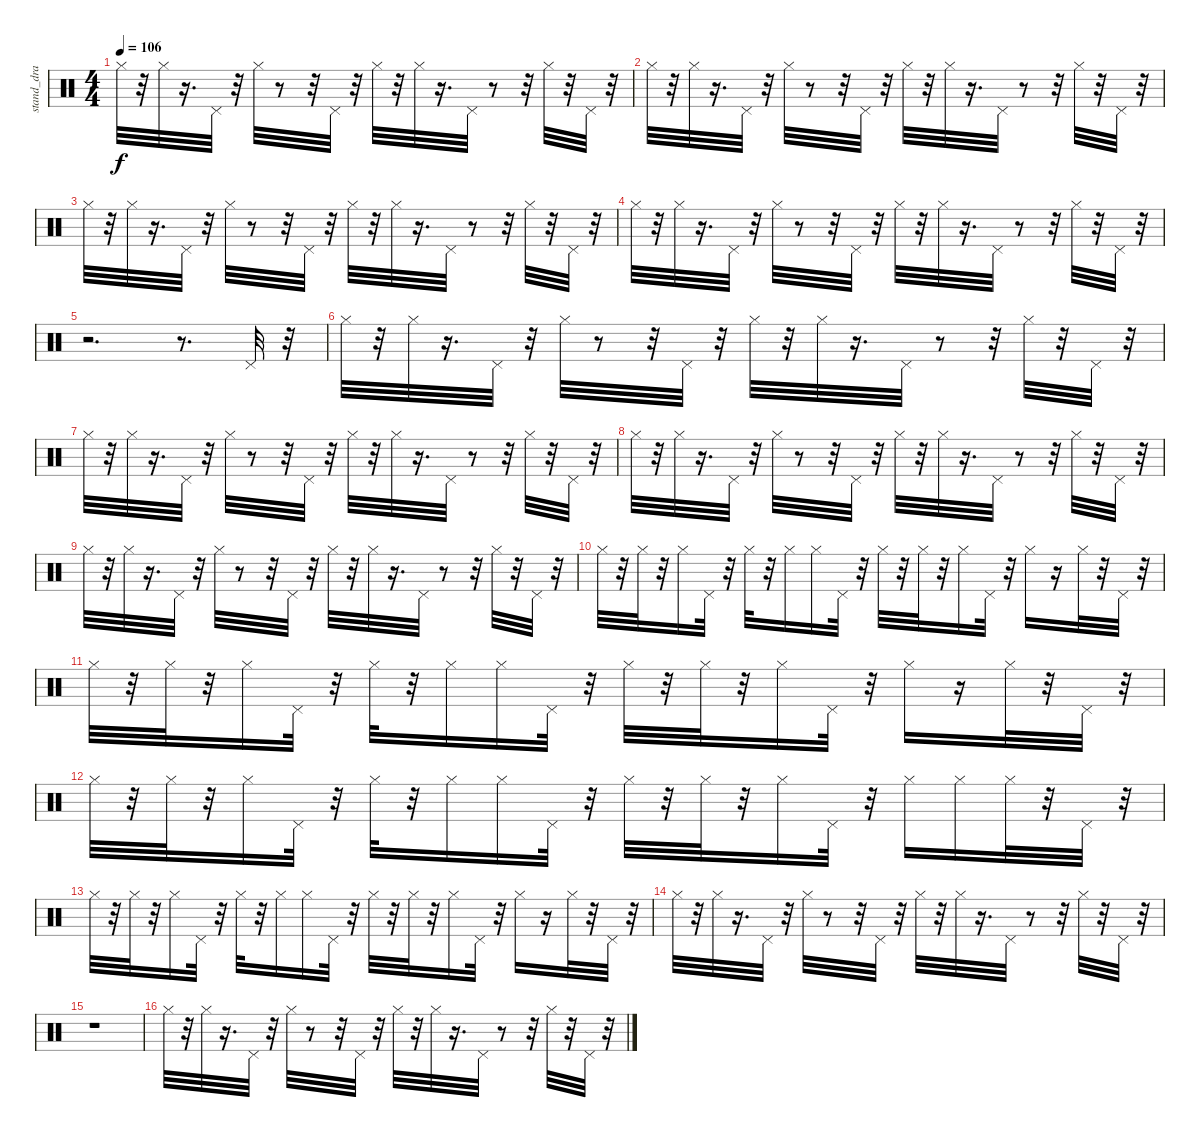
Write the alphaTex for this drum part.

\track ("stand_dra" "stand_dra") {instrument percussion}
\staff {score}
\articulation defaults
\ts (4 4)
\tempo 106
\clef neutral
\ks c "Hi-Hat (closed)".32{dy f}
r.32 "Hi-Hat (closed)".32 r.16{d} "Pedal Hi-Hat (hit)".32 r.32 "Hi-Hat (closed)".32 r.8 r.32 "Pedal Hi-Hat (hit)".32 r.32 "Hi-Hat (closed)".32 r.32 "Hi-Hat (closed)".32 r.16{d} "Pedal Hi-Hat (hit)".32 r.8 r.32 "Hi-Hat (closed)".32 r.32 "Pedal Hi-Hat (hit)".32 r.32 |
"Hi-Hat (closed)".32 r.32 "Hi-Hat (closed)".32 r.16{d} "Pedal Hi-Hat (hit)".32 r.32 "Hi-Hat (closed)".32 r.8 r.32 "Pedal Hi-Hat (hit)".32 r.32 "Hi-Hat (closed)".32 r.32 "Hi-Hat (closed)".32 r.16{d} "Pedal Hi-Hat (hit)".32 r.8 r.32 "Hi-Hat (closed)".32 r.32 "Pedal Hi-Hat (hit)".32 r.32 |
"Hi-Hat (closed)".32 r.32 "Hi-Hat (closed)".32 r.16{d} "Pedal Hi-Hat (hit)".32 r.32 "Hi-Hat (closed)".32 r.8 r.32 "Pedal Hi-Hat (hit)".32 r.32 "Hi-Hat (closed)".32 r.32 "Hi-Hat (closed)".32 r.16{d} "Pedal Hi-Hat (hit)".32 r.8 r.32 "Hi-Hat (closed)".32 r.32 "Pedal Hi-Hat (hit)".32 r.32 |
"Hi-Hat (closed)".32 r.32 "Hi-Hat (closed)".32 r.16{d} "Pedal Hi-Hat (hit)".32 r.32 "Hi-Hat (closed)".32 r.8 r.32 "Pedal Hi-Hat (hit)".32 r.32 "Hi-Hat (closed)".32 r.32 "Hi-Hat (closed)".32 r.16{d} "Pedal Hi-Hat (hit)".32 r.8 r.32 "Hi-Hat (closed)".32 r.32 "Pedal Hi-Hat (hit)".32 r.32 |
r.2{d} r.8{d} "Pedal Hi-Hat (hit)".32 r.32 |
"Hi-Hat (closed)".32 r.32 "Hi-Hat (closed)".32 r.16{d} "Pedal Hi-Hat (hit)".32 r.32 "Hi-Hat (closed)".32 r.8 r.32 "Pedal Hi-Hat (hit)".32 r.32 "Hi-Hat (closed)".32 r.32 "Hi-Hat (closed)".32 r.16{d} "Pedal Hi-Hat (hit)".32 r.8 r.32 "Hi-Hat (closed)".32 r.32 "Pedal Hi-Hat (hit)".32 r.32 |
"Hi-Hat (closed)".32 r.32 "Hi-Hat (closed)".32 r.16{d} "Pedal Hi-Hat (hit)".32 r.32 "Hi-Hat (closed)".32 r.8 r.32 "Pedal Hi-Hat (hit)".32 r.32 "Hi-Hat (closed)".32 r.32 "Hi-Hat (closed)".32 r.16{d} "Pedal Hi-Hat (hit)".32 r.8 r.32 "Hi-Hat (closed)".32 r.32 "Pedal Hi-Hat (hit)".32 r.32 |
"Hi-Hat (closed)".32 r.32 "Hi-Hat (closed)".32 r.16{d} "Pedal Hi-Hat (hit)".32 r.32 "Hi-Hat (closed)".32 r.8 r.32 "Pedal Hi-Hat (hit)".32 r.32 "Hi-Hat (closed)".32 r.32 "Hi-Hat (closed)".32 r.16{d} "Pedal Hi-Hat (hit)".32 r.8 r.32 "Hi-Hat (closed)".32 r.32 "Pedal Hi-Hat (hit)".32 r.32 |
"Hi-Hat (closed)".32 r.32 "Hi-Hat (closed)".32 r.16{d} "Pedal Hi-Hat (hit)".32 r.32 "Hi-Hat (closed)".32 r.8 r.32 "Pedal Hi-Hat (hit)".32 r.32 "Hi-Hat (closed)".32 r.32 "Hi-Hat (closed)".32 r.16{d} "Pedal Hi-Hat (hit)".32 r.8 r.32 "Hi-Hat (closed)".32 r.32 "Pedal Hi-Hat (hit)".32 r.32 |
"Hi-Hat (closed)".32 r.32 "Hi-Hat (closed)".32 r.32 "Hi-Hat (closed)".16 "Pedal Hi-Hat (hit)".32 r.32 "Hi-Hat (closed)".32 r.32 "Hi-Hat (closed)".16 "Hi-Hat (closed)".16 "Pedal Hi-Hat (hit)".32 r.32 "Hi-Hat (closed)".32 r.32 "Hi-Hat (closed)".32 r.32 "Hi-Hat (closed)".16 "Pedal Hi-Hat (hit)".32 r.32 "Hi-Hat (closed)".16 r.16 "Hi-Hat (closed)".32 r.32 "Pedal Hi-Hat (hit)".32 r.32 |
"Hi-Hat (closed)".32 r.32 "Hi-Hat (closed)".32 r.32 "Hi-Hat (closed)".16 "Pedal Hi-Hat (hit)".32 r.32 "Hi-Hat (closed)".32 r.32 "Hi-Hat (closed)".16 "Hi-Hat (closed)".16 "Pedal Hi-Hat (hit)".32 r.32 "Hi-Hat (closed)".32 r.32 "Hi-Hat (closed)".32 r.32 "Hi-Hat (closed)".16 "Pedal Hi-Hat (hit)".32 r.32 "Hi-Hat (closed)".16 r.16 "Hi-Hat (closed)".32 r.32 "Pedal Hi-Hat (hit)".32 r.32 |
"Hi-Hat (closed)".32 r.32 "Hi-Hat (closed)".32 r.32 "Hi-Hat (closed)".16 "Pedal Hi-Hat (hit)".32 r.32 "Hi-Hat (closed)".32 r.32 "Hi-Hat (closed)".16 "Hi-Hat (closed)".16 "Pedal Hi-Hat (hit)".32 r.32 "Hi-Hat (closed)".32 r.32 "Hi-Hat (closed)".32 r.32 "Hi-Hat (closed)".16 "Pedal Hi-Hat (hit)".32 r.32 "Hi-Hat (closed)".16 "Hi-Hat (closed)".16 "Hi-Hat (closed)".32 r.32 "Pedal Hi-Hat (hit)".32 r.32 |
"Hi-Hat (closed)".32 r.32 "Hi-Hat (closed)".32 r.32 "Hi-Hat (closed)".16 "Pedal Hi-Hat (hit)".32 r.32 "Hi-Hat (closed)".32 r.32 "Hi-Hat (closed)".16 "Hi-Hat (closed)".16 "Pedal Hi-Hat (hit)".32 r.32 "Hi-Hat (closed)".32 r.32 "Hi-Hat (closed)".32 r.32 "Hi-Hat (closed)".16 "Pedal Hi-Hat (hit)".32 r.32 "Hi-Hat (closed)".16 r.16 "Hi-Hat (closed)".32 r.32 "Pedal Hi-Hat (hit)".32 r.32 |
"Hi-Hat (closed)".32 r.32 "Hi-Hat (closed)".32 r.16{d} "Pedal Hi-Hat (hit)".32 r.32 "Hi-Hat (closed)".32 r.8 r.32 "Pedal Hi-Hat (hit)".32 r.32 "Hi-Hat (closed)".32 r.32 "Hi-Hat (closed)".32 r.16{d} "Pedal Hi-Hat (hit)".32 r.8 r.32 "Hi-Hat (closed)".32 r.32 "Pedal Hi-Hat (hit)".32 r.32 |
r.1 |
"Hi-Hat (closed)".32 r.32 "Hi-Hat (closed)".32 r.16{d} "Pedal Hi-Hat (hit)".32 r.32 "Hi-Hat (closed)".32 r.8 r.32 "Pedal Hi-Hat (hit)".32 r.32 "Hi-Hat (closed)".32 r.32 "Hi-Hat (closed)".32 r.16{d} "Pedal Hi-Hat (hit)".32 r.8 r.32 "Hi-Hat (closed)".32 r.32 "Pedal Hi-Hat (hit)".32 r.32
